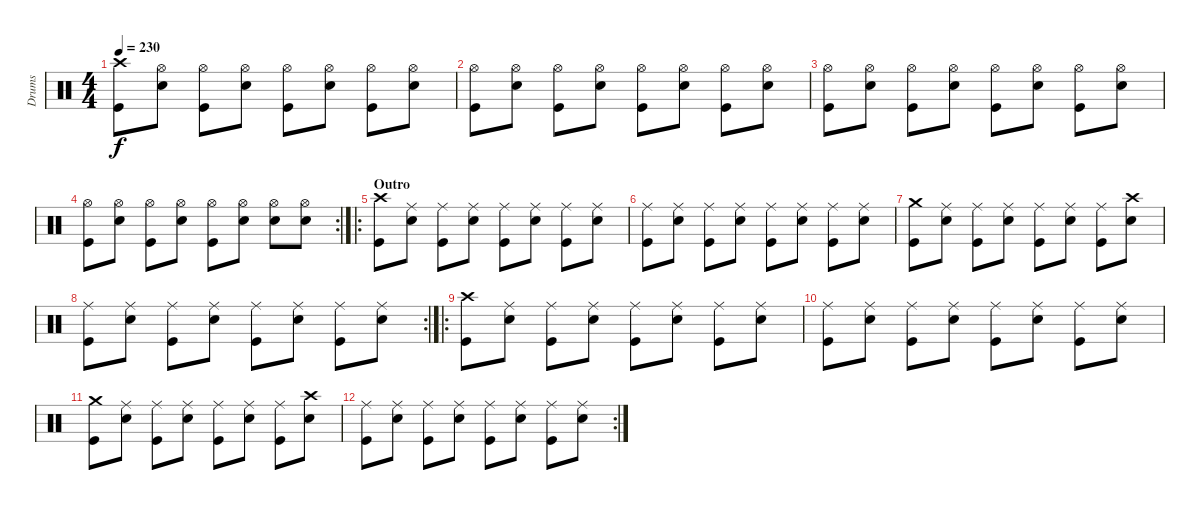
\track ("Drums" "Drums") {instrument percussion}
\staff {score}
\articulation defaults
\ts (4 4)
\tempo 230
\clef neutral
\ks c
("Crash high (hit)" "Kick (hit)").8{dy f} ("Hi-Hat (open)" "Electric Snare (hit)").8 ("Hi-Hat (open)" "Kick (hit)").8 ("Hi-Hat (open)" "Electric Snare (hit)").8 ("Hi-Hat (open)" "Kick (hit)").8 ("Hi-Hat (open)" "Electric Snare (hit)").8 ("Hi-Hat (open)" "Kick (hit)").8 ("Hi-Hat (open)" "Electric Snare (hit)").8 |
("Hi-Hat (open)" "Kick (hit)").8 ("Hi-Hat (open)" "Electric Snare (hit)").8 ("Hi-Hat (open)" "Kick (hit)").8 ("Hi-Hat (open)" "Electric Snare (hit)").8 ("Hi-Hat (open)" "Kick (hit)").8 ("Hi-Hat (open)" "Electric Snare (hit)").8 ("Hi-Hat (open)" "Kick (hit)").8 ("Hi-Hat (open)" "Electric Snare (hit)").8 |
("Hi-Hat (open)" "Kick (hit)").8 ("Hi-Hat (open)" "Electric Snare (hit)").8 ("Hi-Hat (open)" "Kick (hit)").8 ("Hi-Hat (open)" "Electric Snare (hit)").8 ("Hi-Hat (open)" "Kick (hit)").8 ("Hi-Hat (open)" "Electric Snare (hit)").8 ("Hi-Hat (open)" "Kick (hit)").8 ("Hi-Hat (open)" "Electric Snare (hit)").8 |
\rc 2
("Hi-Hat (open)" "Kick (hit)").8 ("Hi-Hat (open)" "Electric Snare (hit)").8 ("Hi-Hat (open)" "Kick (hit)").8 ("Hi-Hat (open)" "Electric Snare (hit)").8 ("Hi-Hat (open)" "Kick (hit)").8 ("Hi-Hat (open)" "Electric Snare (hit)").8 ("Hi-Hat (open)" "Electric Snare (hit)").8 ("Hi-Hat (open)" "Electric Snare (hit)").8 |
\ro
\section ("" "Outro")
("Crash high (hit)" "Kick (hit)").8 ("Ride (middle)" "Electric Snare (hit)").8 ("Ride (middle)" "Kick (hit)").8 ("Ride (middle)" "Electric Snare (hit)").8 ("Ride (middle)" "Kick (hit)").8 ("Ride (middle)" "Electric Snare (hit)").8 ("Ride (middle)" "Kick (hit)").8 ("Ride (middle)" "Electric Snare (hit)").8 |
("Ride (middle)" "Kick (hit)").8 ("Ride (middle)" "Electric Snare (hit)").8 ("Ride (middle)" "Kick (hit)").8 ("Ride (middle)" "Electric Snare (hit)").8 ("Ride (middle)" "Kick (hit)").8 ("Ride (middle)" "Electric Snare (hit)").8 ("Ride (middle)" "Kick (hit)").8 ("Ride (middle)" "Electric Snare (hit)").8 |
("Crash medium (hit)" "Kick (hit)").8 ("Ride (middle)" "Electric Snare (hit)").8 ("Ride (middle)" "Kick (hit)").8 ("Ride (middle)" "Electric Snare (hit)").8 ("Ride (middle)" "Kick (hit)").8 ("Ride (middle)" "Electric Snare (hit)").8 ("Ride (middle)" "Kick (hit)").8 ("Crash high (hit)" "Electric Snare (hit)").8 |
\rc 2
("Ride (middle)" "Kick (hit)").8 ("Ride (middle)" "Electric Snare (hit)").8 ("Ride (middle)" "Kick (hit)").8 ("Ride (middle)" "Electric Snare (hit)").8 ("Ride (middle)" "Kick (hit)").8 ("Ride (middle)" "Electric Snare (hit)").8 ("Ride (middle)" "Kick (hit)").8 ("Ride (middle)" "Electric Snare (hit)").8 |
\ro
("Crash high (hit)" "Kick (hit)").8 ("Ride (middle)" "Electric Snare (hit)").8 ("Ride (middle)" "Kick (hit)").8 ("Ride (middle)" "Electric Snare (hit)").8 ("Ride (middle)" "Kick (hit)").8 ("Ride (middle)" "Electric Snare (hit)").8 ("Ride (middle)" "Kick (hit)").8 ("Ride (middle)" "Electric Snare (hit)").8 |
("Ride (middle)" "Kick (hit)").8 ("Ride (middle)" "Electric Snare (hit)").8 ("Ride (middle)" "Kick (hit)").8 ("Ride (middle)" "Electric Snare (hit)").8 ("Ride (middle)" "Kick (hit)").8 ("Ride (middle)" "Electric Snare (hit)").8 ("Ride (middle)" "Kick (hit)").8 ("Ride (middle)" "Electric Snare (hit)").8 |
("Crash medium (hit)" "Kick (hit)").8 ("Ride (middle)" "Electric Snare (hit)").8 ("Ride (middle)" "Kick (hit)").8 ("Ride (middle)" "Electric Snare (hit)").8 ("Ride (middle)" "Kick (hit)").8 ("Ride (middle)" "Electric Snare (hit)").8 ("Ride (middle)" "Kick (hit)").8 ("Crash high (hit)" "Electric Snare (hit)").8 |
\rc 2
("Ride (middle)" "Kick (hit)").8 ("Ride (middle)" "Electric Snare (hit)").8 ("Ride (middle)" "Kick (hit)").8 ("Ride (middle)" "Electric Snare (hit)").8 ("Ride (middle)" "Kick (hit)").8 ("Ride (middle)" "Electric Snare (hit)").8 ("Ride (middle)" "Kick (hit)").8 ("Ride (middle)" "Electric Snare (hit)").8
